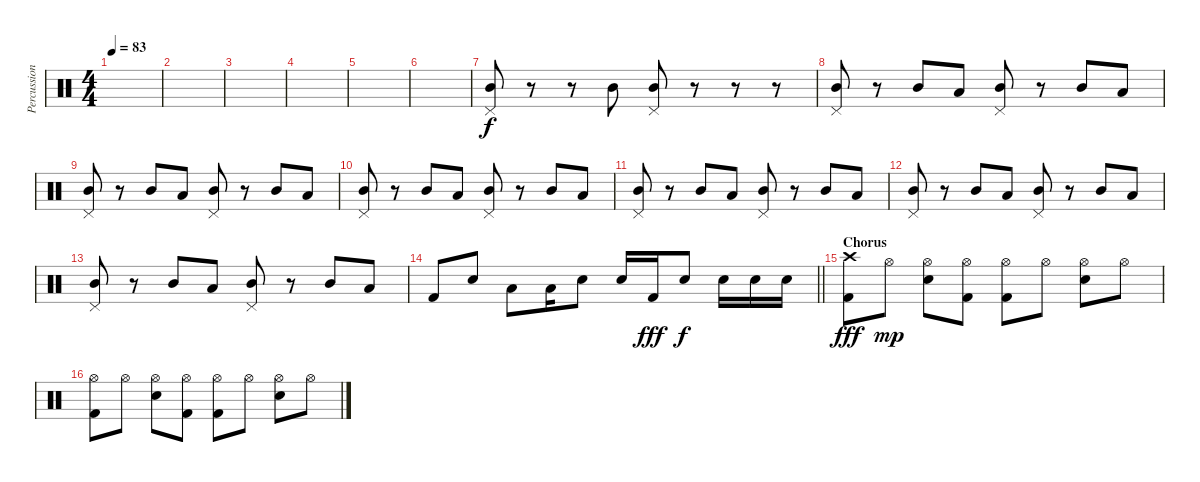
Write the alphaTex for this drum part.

\track ("Percussion" "Percussion") {instrument percussion}
\staff {score}
\articulation defaults
\ts (4 4)
\tempo 83
\clef neutral
\ks c
|
|
|
|
|
|
("Mid Tom (hit)" "Pedal Hi-Hat (hit)").8 r.8 r.8 "Mid Tom (hit)".8 ("Mid Tom (hit)" "Pedal Hi-Hat (hit)").8 r.8 r.8 r.8 |
("Mid Tom (hit)" "Pedal Hi-Hat (hit)").8 r.8 "Mid Tom (hit)".8 "Low Tom (hit)".8 ("Mid Tom (hit)" "Pedal Hi-Hat (hit)").8 r.8 "Mid Tom (hit)".8 "Low Tom (hit)".8 |
("Mid Tom (hit)" "Pedal Hi-Hat (hit)").8 r.8 "Mid Tom (hit)".8 "Low Tom (hit)".8 ("Mid Tom (hit)" "Pedal Hi-Hat (hit)").8 r.8 "Mid Tom (hit)".8 "Low Tom (hit)".8 |
("Mid Tom (hit)" "Pedal Hi-Hat (hit)").8 r.8 "Mid Tom (hit)".8 "Low Tom (hit)".8 ("Mid Tom (hit)" "Pedal Hi-Hat (hit)").8 r.8 "Mid Tom (hit)".8 "Low Tom (hit)".8 |
("Mid Tom (hit)" "Pedal Hi-Hat (hit)").8 r.8 "Mid Tom (hit)".8 "Low Tom (hit)".8 ("Mid Tom (hit)" "Pedal Hi-Hat (hit)").8 r.8 "Mid Tom (hit)".8 "Low Tom (hit)".8 |
("Mid Tom (hit)" "Pedal Hi-Hat (hit)").8 r.8 "Mid Tom (hit)".8 "Low Tom (hit)".8 ("Mid Tom (hit)" "Pedal Hi-Hat (hit)").8 r.8 "Mid Tom (hit)".8 "Low Tom (hit)".8 |
("Mid Tom (hit)" "Pedal Hi-Hat (hit)").8 r.8 "Mid Tom (hit)".8 "Low Tom (hit)".8 ("Mid Tom (hit)" "Pedal Hi-Hat (hit)").8 r.8 "Mid Tom (hit)".8 "Low Tom (hit)".8 |
\barLineRight lightlight "Kick (hit) 2".8 "Electric Snare (hit)".8 "Low Tom (hit)".8 "Low Tom (hit)".16 "Electric Snare (hit)".8 "Electric Snare (hit)".16 "Kick (hit) 2".16{dy fff} "Electric Snare (hit)".8{dy f} "Electric Snare (hit)".16 "Electric Snare (hit)".16 "Electric Snare (hit)".16
|
\section ("" "Chorus")
("Kick (hit) 2" "Crash high (hit)").8{dy fff} "Hi-Hat (open)".8{dy mp} ("Electric Snare (hit)" "Hi-Hat (open)").8 ("Kick (hit) 2" "Hi-Hat (open)").8 ("Kick (hit) 2" "Hi-Hat (open)").8 "Hi-Hat (open)".8 ("Electric Snare (hit)" "Hi-Hat (open)").8 "Hi-Hat (open)".8 |
("Kick (hit) 2" "Hi-Hat (open)").8 "Hi-Hat (open)".8 ("Electric Snare (hit)" "Hi-Hat (open)").8 ("Kick (hit) 2" "Hi-Hat (open)").8 ("Kick (hit) 2" "Hi-Hat (open)").8 "Hi-Hat (open)".8 ("Electric Snare (hit)" "Hi-Hat (open)").8 "Hi-Hat (open)".8
